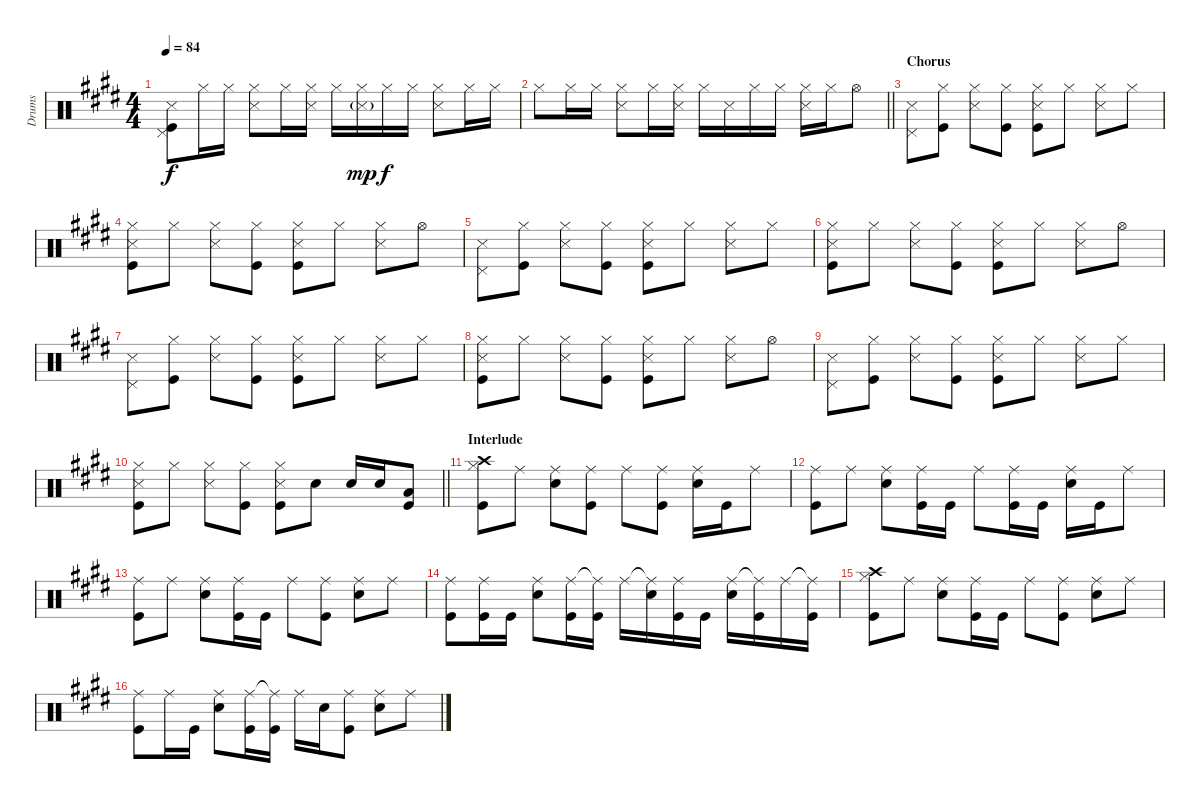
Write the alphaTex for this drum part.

\track ("Drums" "Drums") {instrument percussion}
\staff {score}
\articulation defaults
\ts (4 4)
\tempo 84
\clef neutral
\ks e
("Pedal Hi-Hat (hit)" "Snare (side stick) 3" "Kick (hit)").8{dy f} "Hi-Hat (closed)".16 "Hi-Hat (closed)".16 ("Hi-Hat (closed)" "Snare (side stick) 3").8 "Hi-Hat (closed)".16 ("Hi-Hat (closed)" "Snare (side stick) 3").16 "Hi-Hat (closed)".16 ("Hi-Hat (closed)" "Snare (side stick) 3"{g}).16{dy mp} "Hi-Hat (closed)".16{dy f} "Hi-Hat (closed)".16 ("Hi-Hat (closed)" "Snare (side stick) 3").8 "Hi-Hat (closed)".16 "Hi-Hat (closed)".16 |
\barLineRight lightlight "Hi-Hat (closed)".8 "Hi-Hat (closed)".16 "Hi-Hat (closed)".16
("Hi-Hat (closed)" "Snare (side stick) 3").8 "Hi-Hat (closed)".16 ("Hi-Hat (closed)" "Snare (side stick) 3").16 "Hi-Hat (closed)".16 "Snare (side stick) 3".16 "Hi-Hat (closed)".16 "Hi-Hat (closed)".16 ("Hi-Hat (closed)" "Snare (side stick) 3").16 "Hi-Hat (closed)".16 "Hi-Hat (open)".8 |
\section ("" "Chorus")
\ks c#minor
("Pedal Hi-Hat (hit)" "Snare (side stick) 3").8 ("Hi-Hat (closed)" "Kick (hit)").8 ("Hi-Hat (closed)" "Snare (side stick) 3").8 ("Hi-Hat (closed)" "Kick (hit)").8 ("Hi-Hat (closed)" "Snare (side stick) 3" "Kick (hit)").8 "Hi-Hat (closed)".8 ("Hi-Hat (closed)" "Snare (side stick) 3").8 "Hi-Hat (closed)".8 |
("Hi-Hat (closed)" "Kick (hit)" "Snare (side stick) 3").8 "Hi-Hat (closed)".8 ("Hi-Hat (closed)" "Snare (side stick) 3").8 ("Hi-Hat (closed)" "Kick (hit)").8 ("Hi-Hat (closed)" "Kick (hit)" "Snare (side stick) 3").8 "Hi-Hat (closed)".8 ("Hi-Hat (closed)" "Snare (side stick) 3").8 "Hi-Hat (open)".8 |
\ks e
("Pedal Hi-Hat (hit)" "Snare (side stick) 3").8 ("Hi-Hat (closed)" "Kick (hit)").8 ("Hi-Hat (closed)" "Snare (side stick) 3").8 ("Hi-Hat (closed)" "Kick (hit)").8 ("Hi-Hat (closed)" "Snare (side stick) 3" "Kick (hit)").8 "Hi-Hat (closed)".8 ("Hi-Hat (closed)" "Snare (side stick) 3").8 "Hi-Hat (closed)".8 |
\ks c#minor
("Hi-Hat (closed)" "Kick (hit)" "Snare (side stick) 3").8 "Hi-Hat (closed)".8 ("Hi-Hat (closed)" "Snare (side stick) 3").8 ("Hi-Hat (closed)" "Kick (hit)").8 ("Hi-Hat (closed)" "Kick (hit)" "Snare (side stick) 3").8 "Hi-Hat (closed)".8 ("Hi-Hat (closed)" "Snare (side stick) 3").8 "Hi-Hat (open)".8 |
("Pedal Hi-Hat (hit)" "Snare (side stick) 3").8 ("Hi-Hat (closed)" "Kick (hit)").8 ("Hi-Hat (closed)" "Snare (side stick) 3").8 ("Hi-Hat (closed)" "Kick (hit)").8 ("Hi-Hat (closed)" "Snare (side stick) 3" "Kick (hit)").8 "Hi-Hat (closed)".8 ("Hi-Hat (closed)" "Snare (side stick) 3").8 "Hi-Hat (closed)".8 |
\ks e
("Hi-Hat (closed)" "Kick (hit)" "Snare (side stick) 3").8 "Hi-Hat (closed)".8 ("Hi-Hat (closed)" "Snare (side stick) 3").8 ("Hi-Hat (closed)" "Kick (hit)").8 ("Hi-Hat (closed)" "Kick (hit)" "Snare (side stick) 3").8 "Hi-Hat (closed)".8 ("Hi-Hat (closed)" "Snare (side stick) 3").8 "Hi-Hat (open)".8 |
\ks c#minor
("Pedal Hi-Hat (hit)" "Snare (side stick) 3").8 ("Hi-Hat (closed)" "Kick (hit)").8 ("Hi-Hat (closed)" "Snare (side stick) 3").8 ("Hi-Hat (closed)" "Kick (hit)").8 ("Hi-Hat (closed)" "Snare (side stick) 3" "Kick (hit)").8 "Hi-Hat (closed)".8 ("Hi-Hat (closed)" "Snare (side stick) 3").8 "Hi-Hat (closed)".8 |
\barLineRight lightlight
("Hi-Hat (closed)" "Kick (hit)" "Snare (side stick) 3").8 "Hi-Hat (closed)".8 ("Hi-Hat (closed)" "Snare (side stick) 3").8 ("Hi-Hat (closed)" "Kick (hit)").8 ("Hi-Hat (closed)" "Kick (hit)" "Snare (side stick) 3").8 "Snare (hit) 2".8 "Snare (hit) 2".16 "Snare (hit) 2".16 ("Low Tom (hit)" "Kick (hit)").8 |
\section ("" "Interlude")
\ks e
("Hi-Hat (closed)" "Crash high (hit)" "Kick (hit)").8 "Ride (middle)".8 ("Ride (middle)" "Snare (hit) 2").8 ("Ride (middle)" "Kick (hit)").8 "Ride (middle)".8 ("Ride (middle)" "Kick (hit)").8 ("Ride (middle)" "Snare (hit) 2").16 "Kick (hit)".16 "Ride (middle)".8 |
("Ride (middle)" "Kick (hit)").8 "Ride (middle)".8 ("Ride (middle)" "Snare (hit) 2").8 ("Ride (middle)" "Kick (hit)").16 "Kick (hit)".16 "Ride (middle)".8 ("Ride (middle)" "Kick (hit)").16 "Kick (hit)".16 ("Ride (middle)" "Snare (hit) 2").16 "Kick (hit)".16 "Ride (middle)".8 |
("Ride (middle)" "Kick (hit)").8 "Ride (middle)".8 ("Ride (middle)" "Snare (hit) 2").8 ("Ride (middle)" "Kick (hit)").16 "Kick (hit)".16 "Ride (middle)".8 ("Ride (middle)" "Kick (hit)").8 ("Ride (middle)" "Snare (hit) 2").8 "Ride (middle)".8 |
("Ride (middle)" "Kick (hit)").8 ("Ride (middle)" "Kick (hit)").16 "Kick (hit)".16 ("Ride (middle)" "Snare (hit) 2").8 ("Ride (middle)" "Kick (hit)").16 ("Ride (middle)"{t} "Kick (hit)").16 "Ride (middle)".16 ("Ride (middle)"{t} "Snare (hit) 2").16 ("Ride (middle)" "Kick (hit)").16 "Kick (hit)".16 ("Ride (middle)" "Snare (hit) 2").16 ("Ride (middle)"{t} "Kick (hit)").16 "Ride (middle)".16 ("Ride (middle)"{t} "Kick (hit)").16 |
("Hi-Hat (closed)" "Crash high (hit)" "Kick (hit)").8 "Ride (middle)".8 ("Ride (middle)" "Snare (hit) 2").8 ("Ride (middle)" "Kick (hit)").16 "Kick (hit)".16 "Ride (middle)".8 ("Ride (middle)" "Kick (hit)").8 ("Ride (middle)" "Snare (hit) 2").8 "Ride (middle)".8 |
("Ride (middle)" "Kick (hit)").8 "Ride (middle)".16 "Kick (hit)".16 ("Ride (middle)" "Snare (hit) 2").8 ("Ride (middle)" "Kick (hit)").16 ("Ride (middle)"{t} "Kick (hit)").16 "Ride (middle)".16 "Snare (hit) 2".16 ("Ride (middle)" "Kick (hit)").8 ("Ride (middle)" "Snare (hit) 2").8 "Ride (middle)".8
